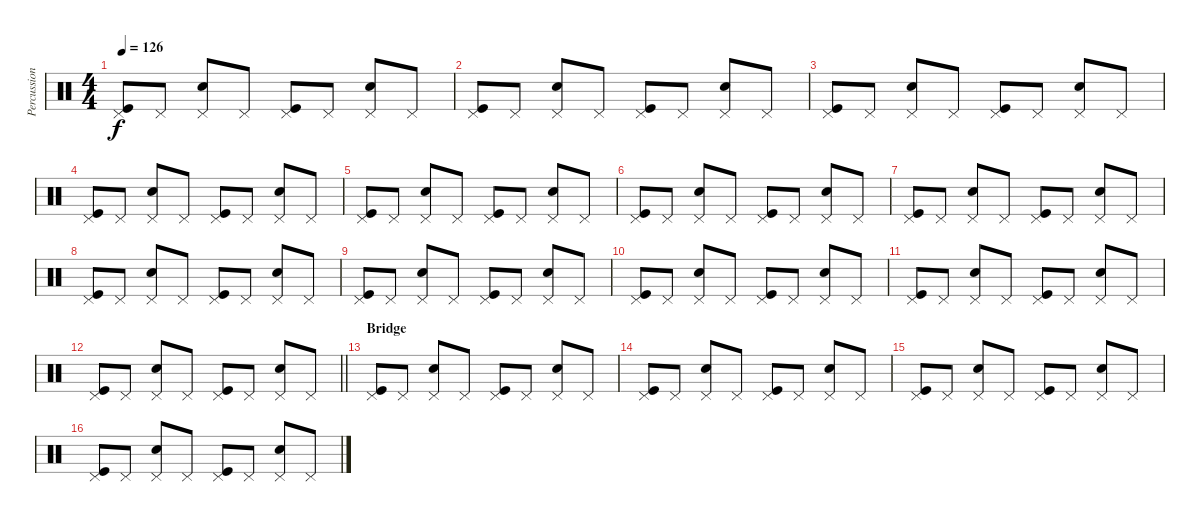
\track ("Percussion" "Percussion") {instrument percussion}
\staff {score}
\articulation defaults
\ts (4 4)
\tempo 126
\clef neutral
\ks c
("Pedal Hi-Hat (hit)" "Kick (hit)").8{dy f} "Pedal Hi-Hat (hit)".8 ("Pedal Hi-Hat (hit)" "Snare (hit) 2").8 "Pedal Hi-Hat (hit)".8 ("Pedal Hi-Hat (hit)" "Kick (hit)").8 "Pedal Hi-Hat (hit)".8 ("Pedal Hi-Hat (hit)" "Snare (hit) 2").8 "Pedal Hi-Hat (hit)".8 |
("Pedal Hi-Hat (hit)" "Kick (hit)").8 "Pedal Hi-Hat (hit)".8 ("Pedal Hi-Hat (hit)" "Snare (hit) 2").8 "Pedal Hi-Hat (hit)".8 ("Pedal Hi-Hat (hit)" "Kick (hit)").8 "Pedal Hi-Hat (hit)".8 ("Pedal Hi-Hat (hit)" "Snare (hit) 2").8 "Pedal Hi-Hat (hit)".8 |
("Pedal Hi-Hat (hit)" "Kick (hit)").8 "Pedal Hi-Hat (hit)".8 ("Pedal Hi-Hat (hit)" "Snare (hit) 2").8 "Pedal Hi-Hat (hit)".8 ("Pedal Hi-Hat (hit)" "Kick (hit)").8 "Pedal Hi-Hat (hit)".8 ("Pedal Hi-Hat (hit)" "Snare (hit) 2").8 "Pedal Hi-Hat (hit)".8 |
("Pedal Hi-Hat (hit)" "Kick (hit)").8 "Pedal Hi-Hat (hit)".8 ("Pedal Hi-Hat (hit)" "Snare (hit) 2").8 "Pedal Hi-Hat (hit)".8 ("Pedal Hi-Hat (hit)" "Kick (hit)").8 "Pedal Hi-Hat (hit)".8 ("Pedal Hi-Hat (hit)" "Snare (hit) 2").8 "Pedal Hi-Hat (hit)".8 |
("Pedal Hi-Hat (hit)" "Kick (hit)").8 "Pedal Hi-Hat (hit)".8 ("Pedal Hi-Hat (hit)" "Snare (hit) 2").8 "Pedal Hi-Hat (hit)".8 ("Pedal Hi-Hat (hit)" "Kick (hit)").8 "Pedal Hi-Hat (hit)".8 ("Pedal Hi-Hat (hit)" "Snare (hit) 2").8 "Pedal Hi-Hat (hit)".8 |
("Pedal Hi-Hat (hit)" "Kick (hit)").8 "Pedal Hi-Hat (hit)".8 ("Pedal Hi-Hat (hit)" "Snare (hit) 2").8 "Pedal Hi-Hat (hit)".8 ("Pedal Hi-Hat (hit)" "Kick (hit)").8 "Pedal Hi-Hat (hit)".8 ("Pedal Hi-Hat (hit)" "Snare (hit) 2").8 "Pedal Hi-Hat (hit)".8 |
("Pedal Hi-Hat (hit)" "Kick (hit)").8 "Pedal Hi-Hat (hit)".8 ("Pedal Hi-Hat (hit)" "Snare (hit) 2").8 "Pedal Hi-Hat (hit)".8 ("Pedal Hi-Hat (hit)" "Kick (hit)").8 "Pedal Hi-Hat (hit)".8 ("Pedal Hi-Hat (hit)" "Snare (hit) 2").8 "Pedal Hi-Hat (hit)".8 |
("Pedal Hi-Hat (hit)" "Kick (hit)").8 "Pedal Hi-Hat (hit)".8 ("Pedal Hi-Hat (hit)" "Snare (hit) 2").8 "Pedal Hi-Hat (hit)".8 ("Pedal Hi-Hat (hit)" "Kick (hit)").8 "Pedal Hi-Hat (hit)".8 ("Pedal Hi-Hat (hit)" "Snare (hit) 2").8 "Pedal Hi-Hat (hit)".8 |
("Pedal Hi-Hat (hit)" "Kick (hit)").8 "Pedal Hi-Hat (hit)".8 ("Pedal Hi-Hat (hit)" "Snare (hit) 2").8 "Pedal Hi-Hat (hit)".8 ("Pedal Hi-Hat (hit)" "Kick (hit)").8 "Pedal Hi-Hat (hit)".8 ("Pedal Hi-Hat (hit)" "Snare (hit) 2").8 "Pedal Hi-Hat (hit)".8 |
("Pedal Hi-Hat (hit)" "Kick (hit)").8 "Pedal Hi-Hat (hit)".8 ("Pedal Hi-Hat (hit)" "Snare (hit) 2").8 "Pedal Hi-Hat (hit)".8 ("Pedal Hi-Hat (hit)" "Kick (hit)").8 "Pedal Hi-Hat (hit)".8 ("Pedal Hi-Hat (hit)" "Snare (hit) 2").8 "Pedal Hi-Hat (hit)".8 |
("Pedal Hi-Hat (hit)" "Kick (hit)").8 "Pedal Hi-Hat (hit)".8 ("Pedal Hi-Hat (hit)" "Snare (hit) 2").8 "Pedal Hi-Hat (hit)".8 ("Pedal Hi-Hat (hit)" "Kick (hit)").8 "Pedal Hi-Hat (hit)".8 ("Pedal Hi-Hat (hit)" "Snare (hit) 2").8 "Pedal Hi-Hat (hit)".8 |
\barLineRight lightlight
("Pedal Hi-Hat (hit)" "Kick (hit)").8 "Pedal Hi-Hat (hit)".8 ("Pedal Hi-Hat (hit)" "Snare (hit) 2").8 "Pedal Hi-Hat (hit)".8 ("Pedal Hi-Hat (hit)" "Kick (hit)").8 "Pedal Hi-Hat (hit)".8 ("Pedal Hi-Hat (hit)" "Snare (hit) 2").8 "Pedal Hi-Hat (hit)".8 |
\section ("" "Bridge")
("Pedal Hi-Hat (hit)" "Kick (hit)").8 "Pedal Hi-Hat (hit)".8 ("Pedal Hi-Hat (hit)" "Snare (hit) 2").8 "Pedal Hi-Hat (hit)".8 ("Pedal Hi-Hat (hit)" "Kick (hit)").8 "Pedal Hi-Hat (hit)".8 ("Pedal Hi-Hat (hit)" "Snare (hit) 2").8 "Pedal Hi-Hat (hit)".8 |
("Pedal Hi-Hat (hit)" "Kick (hit)").8 "Pedal Hi-Hat (hit)".8 ("Pedal Hi-Hat (hit)" "Snare (hit) 2").8 "Pedal Hi-Hat (hit)".8 ("Pedal Hi-Hat (hit)" "Kick (hit)").8 "Pedal Hi-Hat (hit)".8 ("Pedal Hi-Hat (hit)" "Snare (hit) 2").8 "Pedal Hi-Hat (hit)".8 |
("Pedal Hi-Hat (hit)" "Kick (hit)").8 "Pedal Hi-Hat (hit)".8 ("Pedal Hi-Hat (hit)" "Snare (hit) 2").8 "Pedal Hi-Hat (hit)".8 ("Pedal Hi-Hat (hit)" "Kick (hit)").8 "Pedal Hi-Hat (hit)".8 ("Pedal Hi-Hat (hit)" "Snare (hit) 2").8 "Pedal Hi-Hat (hit)".8 |
("Pedal Hi-Hat (hit)" "Kick (hit)").8 "Pedal Hi-Hat (hit)".8 ("Pedal Hi-Hat (hit)" "Snare (hit) 2").8 "Pedal Hi-Hat (hit)".8 ("Pedal Hi-Hat (hit)" "Kick (hit)").8 "Pedal Hi-Hat (hit)".8 ("Pedal Hi-Hat (hit)" "Snare (hit) 2").8 "Pedal Hi-Hat (hit)".8
